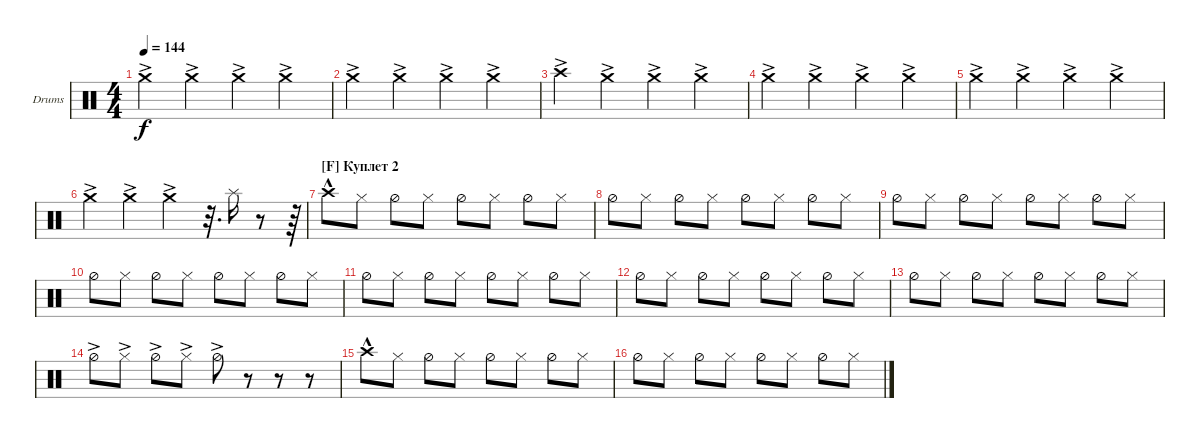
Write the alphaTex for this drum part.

\defaultSystemsLayout 4
\bracketExtendMode groupsimilarinstruments
\firstSystemTrackNameOrientation horizontal
\otherSystemsTrackNameOrientation horizontal
\track ("Cymbals" "Drums") {instrument percussion}
\staff {score}
\articulation defaults
\ts (4 4)
\tempo 144
\clef neutral
\ks c "Crash medium (hit)"{ac}.4{dy f} "Crash medium (hit)"{ac}.4 "Crash medium (hit)"{ac}.4 "Crash medium (hit)"{ac}.4
|
"Crash medium (hit)"{ac}.4 "Crash medium (hit)"{ac}.4 "Crash medium (hit)"{ac}.4 "Crash medium (hit)"{ac}.4 |
"Crash high (hit)"{ac}.4 "Crash medium (hit)"{ac}.4 "Crash medium (hit)"{ac}.4 "Crash medium (hit)"{ac}.4 |
"Crash medium (hit)"{ac}.4 "Crash medium (hit)"{ac}.4 "Crash medium (hit)"{ac}.4 "Crash medium (hit)"{ac}.4 |
"Crash medium (hit)"{ac}.4 "Crash medium (hit)"{ac}.4 "Crash medium (hit)"{ac}.4 "Crash medium (hit)"{ac}.4 |
"Crash medium (hit)"{ac}.4 "Crash medium (hit)"{ac}.4 "Crash medium (hit)"{ac}.4 r.32{d} "Splash (hit)".16 r.8 r.64 |
\section ("F" "Куплет 2")
"Crash high (hit)"{hac}.8 "Hi-Hat (closed)".8 "Hi-Hat (half)".8 "Hi-Hat (closed)".8 "Hi-Hat (half)".8 "Hi-Hat (closed)".8 "Hi-Hat (half)".8 "Hi-Hat (closed)".8 |
"Hi-Hat (half)".8 "Hi-Hat (closed)".8 "Hi-Hat (half)".8 "Hi-Hat (closed)".8 "Hi-Hat (half)".8 "Hi-Hat (closed)".8 "Hi-Hat (half)".8 "Hi-Hat (closed)".8 |
"Hi-Hat (half)".8 "Hi-Hat (closed)".8 "Hi-Hat (half)".8 "Hi-Hat (closed)".8 "Hi-Hat (half)".8 "Hi-Hat (closed)".8 "Hi-Hat (half)".8 "Hi-Hat (closed)".8 |
"Hi-Hat (half)".8 "Hi-Hat (closed)".8 "Hi-Hat (half)".8 "Hi-Hat (closed)".8 "Hi-Hat (half)".8 "Hi-Hat (closed)".8 "Hi-Hat (half)".8 "Hi-Hat (closed)".8 |
"Hi-Hat (half)".8 "Hi-Hat (closed)".8 "Hi-Hat (half)".8 "Hi-Hat (closed)".8 "Hi-Hat (half)".8 "Hi-Hat (closed)".8 "Hi-Hat (half)".8 "Hi-Hat (closed)".8 |
"Hi-Hat (half)".8 "Hi-Hat (closed)".8 "Hi-Hat (half)".8 "Hi-Hat (closed)".8 "Hi-Hat (half)".8 "Hi-Hat (closed)".8 "Hi-Hat (half)".8 "Hi-Hat (closed)".8 |
"Hi-Hat (half)".8 "Hi-Hat (closed)".8 "Hi-Hat (half)".8 "Hi-Hat (closed)".8 "Hi-Hat (half)".8 "Hi-Hat (closed)".8 "Hi-Hat (half)".8 "Hi-Hat (closed)".8 |
"Hi-Hat (half)"{ac}.8 "Hi-Hat (closed)"{ac}.8 "Hi-Hat (half)"{ac}.8 "Hi-Hat (closed)"{ac}.8 "Hi-Hat (half)"{ac}.8 r.8 r.8 r.8 |
"Crash high (hit)"{hac}.8 "Hi-Hat (closed)".8 "Hi-Hat (half)".8 "Hi-Hat (closed)".8 "Hi-Hat (half)".8 "Hi-Hat (closed)".8 "Hi-Hat (half)".8 "Hi-Hat (closed)".8 |
"Hi-Hat (half)".8 "Hi-Hat (closed)".8 "Hi-Hat (half)".8 "Hi-Hat (closed)".8 "Hi-Hat (half)".8 "Hi-Hat (closed)".8 "Hi-Hat (half)".8 "Hi-Hat (closed)".8
